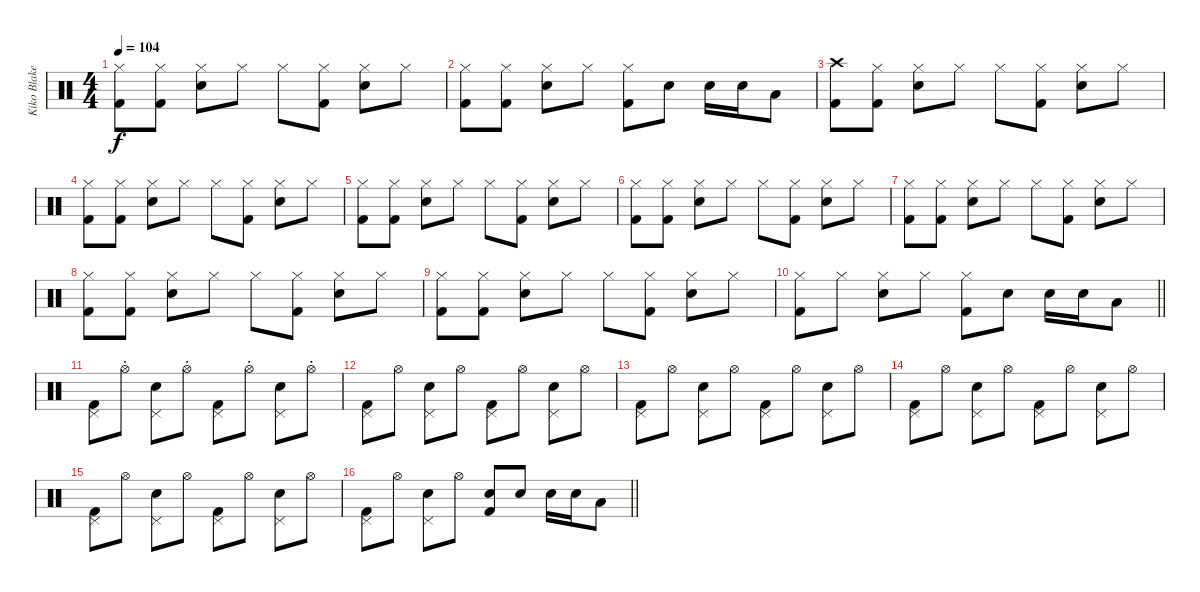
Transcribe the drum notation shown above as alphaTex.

\track ("Kiko Blake" "Kiko Blake") {instrument percussion}
\staff
\articulation defaults
\ts (4 4)
\tempo 104
\clef neutral
\ks c
("Hi-Hat (closed)" "Kick (hit) 2").8{dy f} ("Hi-Hat (closed)" "Kick (hit) 2").8 ("Hi-Hat (closed)" "Snare (hit) 2").8 "Hi-Hat (closed)".8 "Hi-Hat (closed)".8 ("Hi-Hat (closed)" "Kick (hit) 2").8 ("Hi-Hat (closed)" "Snare (hit) 2").8 "Hi-Hat (closed)".8 |
("Hi-Hat (closed)" "Kick (hit) 2").8 ("Hi-Hat (closed)" "Kick (hit) 2").8 ("Hi-Hat (closed)" "Snare (hit) 2").8 "Hi-Hat (closed)".8 ("Hi-Hat (closed)" "Kick (hit) 2").8 "Snare (hit) 2".8 "Snare (hit) 2".16 "Snare (hit) 2".16 "Low Tom (hit)".8 |
("Crash high (hit)" "Kick (hit) 2").8 ("Hi-Hat (closed)" "Kick (hit) 2").8 ("Hi-Hat (closed)" "Snare (hit) 2").8 "Hi-Hat (closed)".8 "Hi-Hat (closed)".8 ("Hi-Hat (closed)" "Kick (hit) 2").8 ("Hi-Hat (closed)" "Snare (hit) 2").8 "Hi-Hat (closed)".8 |
("Hi-Hat (closed)" "Kick (hit) 2").8 ("Hi-Hat (closed)" "Kick (hit) 2").8 ("Hi-Hat (closed)" "Snare (hit) 2").8 "Hi-Hat (closed)".8 "Hi-Hat (closed)".8 ("Hi-Hat (closed)" "Kick (hit) 2").8 ("Hi-Hat (closed)" "Snare (hit) 2").8 "Hi-Hat (closed)".8 |
("Hi-Hat (closed)" "Kick (hit) 2").8 ("Hi-Hat (closed)" "Kick (hit) 2").8 ("Hi-Hat (closed)" "Snare (hit) 2").8 "Hi-Hat (closed)".8 "Hi-Hat (closed)".8 ("Hi-Hat (closed)" "Kick (hit) 2").8 ("Hi-Hat (closed)" "Snare (hit) 2").8 "Hi-Hat (closed)".8 |
("Hi-Hat (closed)" "Kick (hit) 2").8 ("Hi-Hat (closed)" "Kick (hit) 2").8 ("Hi-Hat (closed)" "Snare (hit) 2").8 "Hi-Hat (closed)".8 "Hi-Hat (closed)".8 ("Hi-Hat (closed)" "Kick (hit) 2").8 ("Hi-Hat (closed)" "Snare (hit) 2").8 "Hi-Hat (closed)".8 |
("Hi-Hat (closed)" "Kick (hit) 2").8 ("Hi-Hat (closed)" "Kick (hit) 2").8 ("Hi-Hat (closed)" "Snare (hit) 2").8 "Hi-Hat (closed)".8 "Hi-Hat (closed)".8 ("Hi-Hat (closed)" "Kick (hit) 2").8 ("Hi-Hat (closed)" "Snare (hit) 2").8 "Hi-Hat (closed)".8 |
("Hi-Hat (closed)" "Kick (hit) 2").8 ("Hi-Hat (closed)" "Kick (hit) 2").8 ("Hi-Hat (closed)" "Snare (hit) 2").8 "Hi-Hat (closed)".8 "Hi-Hat (closed)".8 ("Hi-Hat (closed)" "Kick (hit) 2").8 ("Hi-Hat (closed)" "Snare (hit) 2").8 "Hi-Hat (closed)".8 |
("Hi-Hat (closed)" "Kick (hit) 2").8 ("Hi-Hat (closed)" "Kick (hit) 2").8 ("Hi-Hat (closed)" "Snare (hit) 2").8 "Hi-Hat (closed)".8 "Hi-Hat (closed)".8 ("Hi-Hat (closed)" "Kick (hit) 2").8 ("Hi-Hat (closed)" "Snare (hit) 2").8 "Hi-Hat (closed)".8 |
\barLineRight lightlight
("Hi-Hat (closed)" "Kick (hit) 2").8 "Hi-Hat (closed)".8 ("Hi-Hat (closed)" "Snare (hit) 2").8 "Hi-Hat (closed)".8 ("Hi-Hat (closed)" "Kick (hit) 2").8 "Snare (hit) 2".8 "Snare (hit) 2".16 "Snare (hit) 2".16 "Low Tom (hit)".8 |
("Pedal Hi-Hat (hit)" "Kick (hit) 2").8 "Hi-Hat (open)"{st}.8 ("Pedal Hi-Hat (hit)" "Snare (hit) 2").8 "Hi-Hat (open)"{st}.8 ("Pedal Hi-Hat (hit)" "Kick (hit) 2").8 "Hi-Hat (open)"{st}.8 ("Pedal Hi-Hat (hit)" "Snare (hit) 2").8 "Hi-Hat (open)"{st}.8 |
("Pedal Hi-Hat (hit)" "Kick (hit) 2").8 "Hi-Hat (open)".8 ("Pedal Hi-Hat (hit)" "Snare (hit) 2").8 "Hi-Hat (open)".8 ("Pedal Hi-Hat (hit)" "Kick (hit) 2").8 "Hi-Hat (open)".8 ("Pedal Hi-Hat (hit)" "Snare (hit) 2").8 "Hi-Hat (open)".8 |
("Pedal Hi-Hat (hit)" "Kick (hit) 2").8 "Hi-Hat (open)".8 ("Pedal Hi-Hat (hit)" "Snare (hit) 2").8 "Hi-Hat (open)".8 ("Pedal Hi-Hat (hit)" "Kick (hit) 2").8 "Hi-Hat (open)".8 ("Pedal Hi-Hat (hit)" "Snare (hit) 2").8 "Hi-Hat (open)".8 |
("Pedal Hi-Hat (hit)" "Kick (hit) 2").8 "Hi-Hat (open)".8 ("Pedal Hi-Hat (hit)" "Snare (hit) 2").8 "Hi-Hat (open)".8 ("Pedal Hi-Hat (hit)" "Kick (hit) 2").8 "Hi-Hat (open)".8 ("Pedal Hi-Hat (hit)" "Snare (hit) 2").8 "Hi-Hat (open)".8 |
("Pedal Hi-Hat (hit)" "Kick (hit) 2").8 "Hi-Hat (open)".8 ("Pedal Hi-Hat (hit)" "Snare (hit) 2").8 "Hi-Hat (open)".8 ("Pedal Hi-Hat (hit)" "Kick (hit) 2").8 "Hi-Hat (open)".8 ("Pedal Hi-Hat (hit)" "Snare (hit) 2").8 "Hi-Hat (open)".8 |
\barLineRight lightlight
("Pedal Hi-Hat (hit)" "Kick (hit) 2").8 "Hi-Hat (open)".8 ("Pedal Hi-Hat (hit)" "Snare (hit) 2").8 "Hi-Hat (open)".8 ("Snare (hit) 2" "Kick (hit) 2").8 "Snare (hit) 2".8 "Snare (hit) 2".16 "Snare (hit) 2".16 "Low Tom (hit)".8
